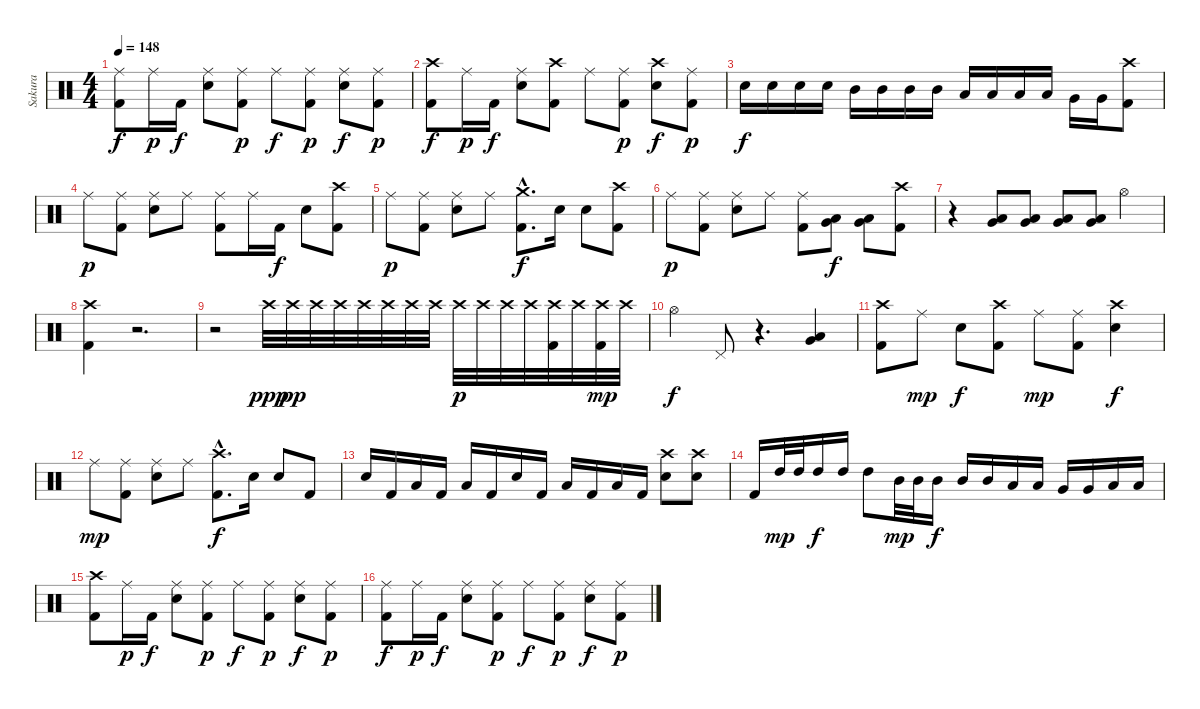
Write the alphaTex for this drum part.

\track ("Sakura" "Sakura") {instrument percussion}
\staff {score}
\articulation defaults
\ts (4 4)
\tempo 148
\clef neutral
\ks c
("Ride (middle)" "Kick (hit) 2").8{dy f} "Ride (middle)".16{dy p} "Kick (hit) 2".16{dy f} ("Ride (middle)" "Electric Snare (hit)").8 ("Ride (middle)" "Kick (hit) 2").8{dy p} "Ride (middle)".8{dy f} ("Ride (middle)" "Kick (hit) 2").8{dy p} ("Ride (middle)" "Electric Snare (hit)").8{dy f} ("Ride (middle)" "Kick (hit) 2").8{dy p} |
("Crash high (hit)" "Kick (hit) 2").8{dy f} "Ride (middle)".16{dy p} "Kick (hit) 2".16{dy f} ("Ride (middle)" "Electric Snare (hit)").8 ("Crash high (hit)" "Kick (hit) 2").8 "Ride (middle)".8 ("Ride (middle)" "Kick (hit) 2").8{dy p} ("Crash high (hit)" "Electric Snare (hit)").8{dy f} ("Ride (middle)" "Kick (hit) 2").8{dy p} |
"Electric Snare (hit)".16{dy f} "Electric Snare (hit)".16 "Electric Snare (hit)".16 "Electric Snare (hit)".16 "Mid Tom (hit)".16 "Mid Tom (hit)".16 "Mid Tom (hit)".16 "Mid Tom (hit)".16 "Low Tom (hit)".16 "Low Tom (hit)".16 "Low Tom (hit)".16 "Low Tom (hit)".16 "Very Low Tom (hit)".16 "Very Low Tom (hit)".16 ("Crash high (hit)" "Kick (hit) 2").8 |
"Ride (middle)".8{dy p} ("Ride (middle)" "Kick (hit) 2").8 ("Ride (middle)" "Electric Snare (hit)").8 "Ride (middle)".8 ("Ride (middle)" "Kick (hit) 2").8 "Ride (middle)".16 "Kick (hit) 2".16{dy f} "Electric Snare (hit)".8 ("Crash high (hit)" "Kick (hit) 2").8 |
"Ride (middle)".8{dy p} ("Ride (middle)" "Kick (hit) 2").8 ("Ride (middle)" "Electric Snare (hit)").8 "Ride (middle)".8 ("Crash medium (hit)" "Kick (hit) 2"{hac}).8{d dy f} "Electric Snare (hit)".16 "Electric Snare (hit)".8 ("Crash high (hit)" "Kick (hit) 2").8 |
"Ride (middle)".8{dy p} ("Ride (middle)" "Kick (hit) 2").8 ("Ride (middle)" "Electric Snare (hit)").8 "Ride (middle)".8 ("Ride (middle)" "Kick (hit) 2").8 ("Very Low Tom (hit)" "Low Floor Tom (hit)").8{dy f} ("Very Low Tom (hit)" "Low Floor Tom (hit)").8 ("Crash high (hit)" "Kick (hit) 2").8 |
r.4 ("Very Low Tom (hit)" "Low Floor Tom (hit)").8 ("Very Low Tom (hit)" "Low Floor Tom (hit)").8 ("Very Low Tom (hit)" "Low Floor Tom (hit)").8 ("Very Low Tom (hit)" "Low Floor Tom (hit)").8 "Hi-Hat (open)".4 |
("Crash high (hit)" "Kick (hit) 2").4 r.2{d} |
r.2 "Crash high (hit)".32{dy ppp} "Crash high (hit)".32{dy pp} "Crash high (hit)".32 "Crash high (hit)".32 "Crash high (hit)".32 "Crash high (hit)".32 "Crash high (hit)".32 "Crash high (hit)".32 "Crash high (hit)".32{dy p} "Crash high (hit)".32 "Crash high (hit)".32 "Crash high (hit)".32 ("Crash high (hit)" "Kick (hit) 2").32 "Crash high (hit)".32 ("Crash high (hit)" "Kick (hit) 2").32{dy mp} "Crash high (hit)".32 |
"Hi-Hat (open)".4{dy f} "Pedal Hi-Hat (hit)".8 r.4{d} ("Very Low Tom (hit)" "Low Floor Tom (hit)").4 |
("Crash high (hit)" "Kick (hit) 2").8 "Ride (middle)".8{dy mp} "Electric Snare (hit)".8{dy f} ("Crash high (hit)" "Kick (hit) 2").8 "Ride (middle)".8{dy mp} ("Ride (middle)" "Kick (hit) 2").8 ("Crash high (hit)" "Electric Snare (hit)").4{dy f} |
"Ride (middle)".8{dy mp} ("Ride (middle)" "Kick (hit) 2").8 ("Ride (middle)" "Electric Snare (hit)").8 "Ride (middle)".8 ("Crash high (hit)"{hac} "Kick (hit) 2"{hac}).8{d dy f} "Electric Snare (hit)".16 "Electric Snare (hit)".8 "Kick (hit) 2".8 |
"Electric Snare (hit)".16 "Kick (hit) 2".16 "Low Floor Tom (hit)".16 "Kick (hit) 2".16 "Low Floor Tom (hit)".16 "Kick (hit) 2".16 "Electric Snare (hit)".16 "Kick (hit) 2".16 "Low Floor Tom (hit)".16 "Kick (hit) 2".16 "Low Floor Tom (hit)".16 "Kick (hit) 2".16 ("Crash high (hit)" "Electric Snare (hit)").8 ("Crash high (hit)" "Electric Snare (hit)").8 |
"Kick (hit) 2".16 "High Tom (hit)".32{dy mp} "High Tom (hit)".32 "High Tom (hit)".16{dy f} "High Tom (hit)".16 "High Tom (hit)".8 "Mid Tom (hit)".32{dy mp} "Mid Tom (hit)".32 "Mid Tom (hit)".16{dy f} "Mid Tom (hit)".16 "Mid Tom (hit)".16 "Low Tom (hit)".16 "Low Tom (hit)".16 "Very Low Tom (hit)".16 "Very Low Tom (hit)".16 "Low Floor Tom (hit)".16 "Low Floor Tom (hit)".16 |
("Crash high (hit)" "Kick (hit) 2").8 "Ride (middle)".16{dy p} "Kick (hit) 2".16{dy f} ("Ride (middle)" "Electric Snare (hit)").8 ("Ride (middle)" "Kick (hit) 2").8{dy p} "Ride (middle)".8{dy f} ("Ride (middle)" "Kick (hit) 2").8{dy p} ("Ride (middle)" "Electric Snare (hit)").8{dy f} ("Ride (middle)" "Kick (hit) 2").8{dy p} |
("Ride (middle)" "Kick (hit) 2").8{dy f} "Ride (middle)".16{dy p} "Kick (hit) 2".16{dy f} ("Ride (middle)" "Electric Snare (hit)").8 ("Ride (middle)" "Kick (hit) 2").8{dy p} "Ride (middle)".8{dy f} ("Ride (middle)" "Kick (hit) 2").8{dy p} ("Ride (middle)" "Electric Snare (hit)").8{dy f} ("Ride (middle)" "Kick (hit) 2").8{dy p}
